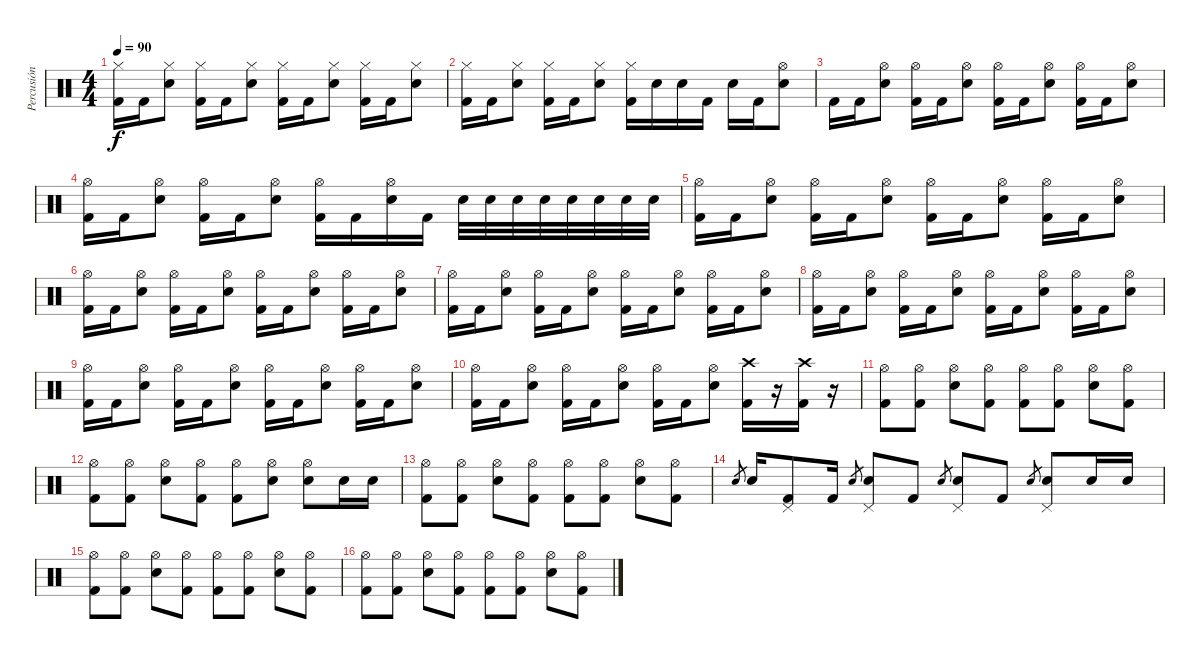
\track ("Percusión" "Percusión") {instrument percussion}
\staff {score}
\articulation defaults
\ts (4 4)
\tempo 90
\clef neutral
\ks c
("Hi-Hat (closed)" "Kick (hit) 2").16{dy f} "Kick (hit) 2".16 ("Hi-Hat (closed)" "Snare (hit) 2").8 ("Hi-Hat (closed)" "Kick (hit) 2").16 "Kick (hit) 2".16 ("Hi-Hat (closed)" "Snare (hit) 2").8 ("Hi-Hat (closed)" "Kick (hit) 2").16 "Kick (hit) 2".16 ("Hi-Hat (closed)" "Snare (hit) 2").8 ("Hi-Hat (closed)" "Kick (hit) 2").16 "Kick (hit) 2".16 ("Hi-Hat (closed)" "Snare (hit) 2").8 |
("Hi-Hat (closed)" "Kick (hit) 2").16 "Kick (hit) 2".16 ("Hi-Hat (closed)" "Snare (hit) 2").8 ("Hi-Hat (closed)" "Kick (hit) 2").16 "Kick (hit) 2".16 ("Hi-Hat (closed)" "Snare (hit) 2").8 ("Hi-Hat (closed)" "Kick (hit) 2").16 "Snare (hit) 2".16 "Snare (hit) 2".16 "Kick (hit) 2".16 "Snare (hit) 2".16 "Kick (hit) 2".16 ("Hi-Hat (open)" "Snare (hit) 2").8 |
"Kick (hit) 2".16 "Kick (hit) 2".16 ("Hi-Hat (open)" "Snare (hit) 2").8 ("Hi-Hat (open)" "Kick (hit) 2").16 "Kick (hit) 2".16 ("Hi-Hat (open)" "Snare (hit) 2").8 ("Hi-Hat (open)" "Kick (hit) 2").16 "Kick (hit) 2".16 ("Hi-Hat (open)" "Snare (hit) 2").8 ("Hi-Hat (open)" "Kick (hit) 2").16 "Kick (hit) 2".16 ("Hi-Hat (open)" "Snare (hit) 2").8 |
("Hi-Hat (open)" "Kick (hit) 2").16 "Kick (hit) 2".16 ("Hi-Hat (open)" "Snare (hit) 2").8 ("Hi-Hat (open)" "Kick (hit) 2").16 "Kick (hit) 2".16 ("Hi-Hat (open)" "Snare (hit) 2").8 ("Hi-Hat (open)" "Kick (hit) 2").16 "Kick (hit) 2".16 ("Hi-Hat (open)" "Snare (hit) 2").16 "Kick (hit) 2".16 "Snare (hit) 2".32 "Snare (hit) 2".32 "Snare (hit) 2".32 "Snare (hit) 2".32 "Snare (hit) 2".32 "Snare (hit) 2".32 "Snare (hit) 2".32 "Snare (hit) 2".32 |
("Hi-Hat (open)" "Kick (hit) 2").16 "Kick (hit) 2".16 ("Hi-Hat (open)" "Snare (hit) 2").8 ("Hi-Hat (open)" "Kick (hit) 2").16 "Kick (hit) 2".16 ("Hi-Hat (open)" "Snare (hit) 2").8 ("Hi-Hat (open)" "Kick (hit) 2").16 "Kick (hit) 2".16 ("Hi-Hat (open)" "Snare (hit) 2").8 ("Hi-Hat (open)" "Kick (hit) 2").16 "Kick (hit) 2".16 ("Hi-Hat (open)" "Snare (hit) 2").8 |
("Hi-Hat (open)" "Kick (hit) 2").16 "Kick (hit) 2".16 ("Hi-Hat (open)" "Snare (hit) 2").8 ("Hi-Hat (open)" "Kick (hit) 2").16 "Kick (hit) 2".16 ("Hi-Hat (open)" "Snare (hit) 2").8 ("Hi-Hat (open)" "Kick (hit) 2").16 "Kick (hit) 2".16 ("Hi-Hat (open)" "Snare (hit) 2").8 ("Hi-Hat (open)" "Kick (hit) 2").16 "Kick (hit) 2".16 ("Hi-Hat (open)" "Snare (hit) 2").8 |
("Hi-Hat (open)" "Kick (hit) 2").16 "Kick (hit) 2".16 ("Hi-Hat (open)" "Snare (hit) 2").8 ("Hi-Hat (open)" "Kick (hit) 2").16 "Kick (hit) 2".16 ("Hi-Hat (open)" "Snare (hit) 2").8 ("Hi-Hat (open)" "Kick (hit) 2").16 "Kick (hit) 2".16 ("Hi-Hat (open)" "Snare (hit) 2").8 ("Hi-Hat (open)" "Kick (hit) 2").16 "Kick (hit) 2".16 ("Hi-Hat (open)" "Snare (hit) 2").8 |
("Hi-Hat (open)" "Kick (hit) 2").16 "Kick (hit) 2".16 ("Hi-Hat (open)" "Snare (hit) 2").8 ("Hi-Hat (open)" "Kick (hit) 2").16 "Kick (hit) 2".16 ("Hi-Hat (open)" "Snare (hit) 2").8 ("Hi-Hat (open)" "Kick (hit) 2").16 "Kick (hit) 2".16 ("Hi-Hat (open)" "Snare (hit) 2").8 ("Hi-Hat (open)" "Kick (hit) 2").16 "Kick (hit) 2".16 ("Hi-Hat (open)" "Snare (hit) 2").8 |
("Hi-Hat (open)" "Kick (hit) 2").16 "Kick (hit) 2".16 ("Hi-Hat (open)" "Snare (hit) 2").8 ("Hi-Hat (open)" "Kick (hit) 2").16 "Kick (hit) 2".16 ("Hi-Hat (open)" "Snare (hit) 2").8 ("Hi-Hat (open)" "Kick (hit) 2").16 "Kick (hit) 2".16 ("Hi-Hat (open)" "Snare (hit) 2").8 ("Hi-Hat (open)" "Kick (hit) 2").16 "Kick (hit) 2".16 ("Hi-Hat (open)" "Snare (hit) 2").8 |
("Hi-Hat (open)" "Kick (hit) 2").16 "Kick (hit) 2".16 ("Hi-Hat (open)" "Snare (hit) 2").8 ("Hi-Hat (open)" "Kick (hit) 2").16 "Kick (hit) 2".16 ("Hi-Hat (open)" "Snare (hit) 2").8 ("Hi-Hat (open)" "Kick (hit) 2").16 "Kick (hit) 2".16 ("Hi-Hat (open)" "Snare (hit) 2").8 ("Crash high (hit)" "Kick (hit) 2").16 r.16 ("Crash high (hit)" "Kick (hit) 2").16 r.16 |
("Hi-Hat (open)" "Kick (hit) 2").8 ("Hi-Hat (open)" "Kick (hit) 2").8 ("Hi-Hat (open)" "Snare (hit) 2").8 ("Hi-Hat (open)" "Kick (hit) 2").8 ("Hi-Hat (open)" "Kick (hit) 2").8 ("Hi-Hat (open)" "Kick (hit) 2").8 ("Hi-Hat (open)" "Snare (hit) 2").8 ("Hi-Hat (open)" "Kick (hit) 2").8 |
("Hi-Hat (open)" "Kick (hit) 2").8 ("Hi-Hat (open)" "Kick (hit) 2").8 ("Hi-Hat (open)" "Snare (hit) 2").8 ("Hi-Hat (open)" "Kick (hit) 2").8 ("Hi-Hat (open)" "Kick (hit) 2").8 ("Hi-Hat (open)" "Snare (hit) 2").8 ("Hi-Hat (open)" "Snare (hit) 2").8 "Snare (hit) 2".16 "Snare (hit) 2".16 |
("Hi-Hat (open)" "Kick (hit) 2").8 ("Hi-Hat (open)" "Kick (hit) 2").8 ("Hi-Hat (open)" "Snare (hit) 2").8 ("Hi-Hat (open)" "Kick (hit) 2").8 ("Hi-Hat (open)" "Kick (hit) 2").8 ("Hi-Hat (open)" "Kick (hit) 2").8 ("Hi-Hat (open)" "Snare (hit) 2").8 ("Hi-Hat (open)" "Kick (hit) 2").8 |
"Snare (hit) 2".8{gr} "Snare (hit) 2".16 ("Pedal Hi-Hat (hit)" "Kick (hit) 2").8 "Kick (hit) 2".16 "Snare (hit) 2".8{gr} ("Pedal Hi-Hat (hit)" "Snare (hit) 2").8 "Kick (hit) 2".8 "Snare (hit) 2".8{gr} ("Pedal Hi-Hat (hit)" "Snare (hit) 2").8 "Kick (hit) 2".8 "Snare (hit) 2".8{gr} ("Pedal Hi-Hat (hit)" "Snare (hit) 2").8 "Snare (hit) 2".16 "Snare (hit) 2".16 |
("Hi-Hat (open)" "Kick (hit) 2").8 ("Hi-Hat (open)" "Kick (hit) 2").8 ("Hi-Hat (open)" "Snare (hit) 2").8 ("Hi-Hat (open)" "Kick (hit) 2").8 ("Hi-Hat (open)" "Kick (hit) 2").8 ("Hi-Hat (open)" "Kick (hit) 2").8 ("Hi-Hat (open)" "Snare (hit) 2").8 ("Hi-Hat (open)" "Kick (hit) 2").8 |
("Hi-Hat (open)" "Kick (hit) 2").8 ("Hi-Hat (open)" "Kick (hit) 2").8 ("Hi-Hat (open)" "Snare (hit) 2").8 ("Hi-Hat (open)" "Kick (hit) 2").8 ("Hi-Hat (open)" "Kick (hit) 2").8 ("Hi-Hat (open)" "Kick (hit) 2").8 ("Hi-Hat (open)" "Snare (hit) 2").8 ("Hi-Hat (open)" "Kick (hit) 2").8
